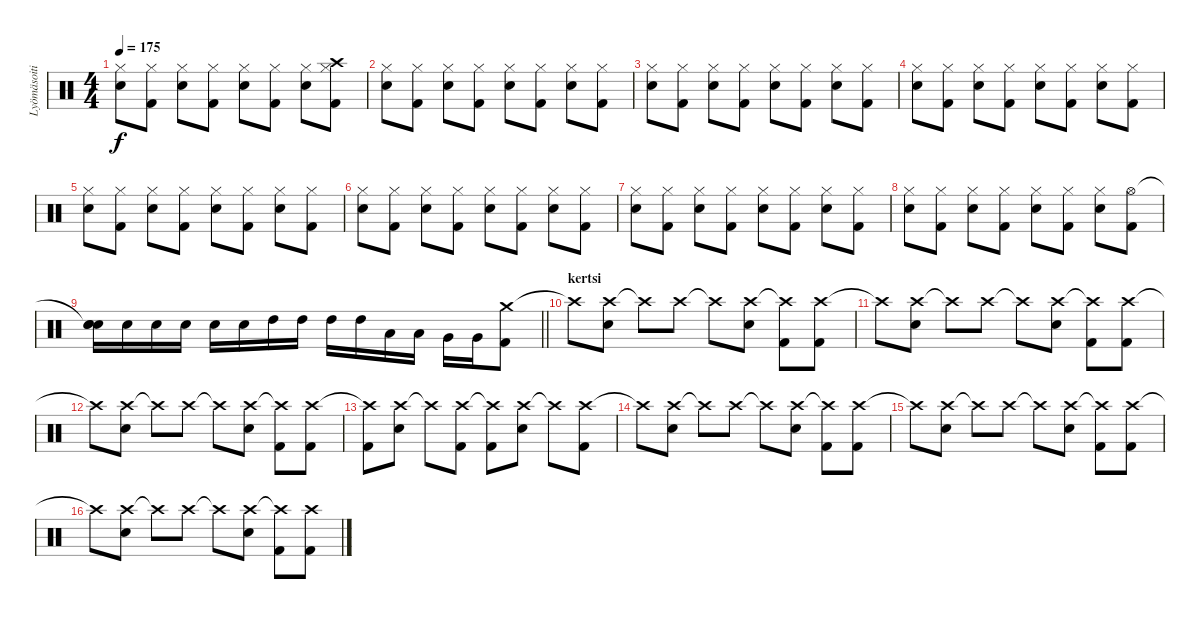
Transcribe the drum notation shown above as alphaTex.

\track ("Lyömäsoitin" "Lyömäsoiti") {instrument percussion}
\staff {score}
\articulation defaults
\ts (4 4)
\tempo 175
\clef neutral
\ks c
("Hi-Hat (closed)" "Electric Snare (hit)").8{dy f} ("Hi-Hat (closed)" "Kick (hit) 2").8 ("Hi-Hat (closed)" "Electric Snare (hit)").8 ("Hi-Hat (closed)" "Kick (hit) 2").8 ("Hi-Hat (closed)" "Electric Snare (hit)").8 ("Hi-Hat (closed)" "Kick (hit) 2").8 ("Hi-Hat (closed)" "Electric Snare (hit)").8 ("Crash high (hit)" "Hi-Hat (closed)" "Kick (hit) 2").8 |
("Hi-Hat (closed)" "Electric Snare (hit)").8 ("Hi-Hat (closed)" "Kick (hit) 2").8 ("Hi-Hat (closed)" "Electric Snare (hit)").8 ("Hi-Hat (closed)" "Kick (hit) 2").8 ("Hi-Hat (closed)" "Electric Snare (hit)").8 ("Hi-Hat (closed)" "Kick (hit) 2").8 ("Hi-Hat (closed)" "Electric Snare (hit)").8 ("Hi-Hat (closed)" "Kick (hit) 2").8 |
("Hi-Hat (closed)" "Electric Snare (hit)").8 ("Hi-Hat (closed)" "Kick (hit) 2").8 ("Hi-Hat (closed)" "Electric Snare (hit)").8 ("Hi-Hat (closed)" "Kick (hit) 2").8 ("Hi-Hat (closed)" "Electric Snare (hit)").8 ("Hi-Hat (closed)" "Kick (hit) 2").8 ("Hi-Hat (closed)" "Electric Snare (hit)").8 ("Hi-Hat (closed)" "Kick (hit) 2").8 |
("Hi-Hat (closed)" "Electric Snare (hit)").8 ("Hi-Hat (closed)" "Kick (hit) 2").8 ("Hi-Hat (closed)" "Electric Snare (hit)").8 ("Hi-Hat (closed)" "Kick (hit) 2").8 ("Hi-Hat (closed)" "Electric Snare (hit)").8 ("Hi-Hat (closed)" "Kick (hit) 2").8 ("Hi-Hat (closed)" "Electric Snare (hit)").8 ("Hi-Hat (closed)" "Kick (hit) 2").8 |
("Hi-Hat (closed)" "Electric Snare (hit)").8 ("Hi-Hat (closed)" "Kick (hit) 2").8 ("Hi-Hat (closed)" "Electric Snare (hit)").8 ("Hi-Hat (closed)" "Kick (hit) 2").8 ("Hi-Hat (closed)" "Electric Snare (hit)").8 ("Hi-Hat (closed)" "Kick (hit) 2").8 ("Hi-Hat (closed)" "Electric Snare (hit)").8 ("Hi-Hat (closed)" "Kick (hit) 2").8 |
("Hi-Hat (closed)" "Electric Snare (hit)").8 ("Hi-Hat (closed)" "Kick (hit) 2").8 ("Hi-Hat (closed)" "Electric Snare (hit)").8 ("Hi-Hat (closed)" "Kick (hit) 2").8 ("Hi-Hat (closed)" "Electric Snare (hit)").8 ("Hi-Hat (closed)" "Kick (hit) 2").8 ("Hi-Hat (closed)" "Electric Snare (hit)").8 ("Hi-Hat (closed)" "Kick (hit) 2").8 |
("Hi-Hat (closed)" "Electric Snare (hit)").8 ("Hi-Hat (closed)" "Kick (hit) 2").8 ("Hi-Hat (closed)" "Electric Snare (hit)").8 ("Hi-Hat (closed)" "Kick (hit) 2").8 ("Hi-Hat (closed)" "Electric Snare (hit)").8 ("Hi-Hat (closed)" "Kick (hit) 2").8 ("Hi-Hat (closed)" "Electric Snare (hit)").8 ("Hi-Hat (closed)" "Kick (hit) 2").8 |
("Hi-Hat (closed)" "Electric Snare (hit)").8 ("Hi-Hat (closed)" "Kick (hit) 2").8 ("Hi-Hat (closed)" "Electric Snare (hit)").8 ("Hi-Hat (closed)" "Kick (hit) 2").8 ("Hi-Hat (closed)" "Electric Snare (hit)").8 ("Hi-Hat (closed)" "Kick (hit) 2").8 ("Hi-Hat (closed)" "Electric Snare (hit)").8 ("Hi-Hat (open)" "Kick (hit) 2").8 |
\barLineRight lightlight
("Snare (hit)"{t} "Electric Snare (hit)" "Snare (hit)").16 "Electric Snare (hit)".16 "Electric Snare (hit)".16 "Electric Snare (hit)".16 "Electric Snare (hit)".16 "Electric Snare (hit)".16 "High Tom (hit)".16 "High Tom (hit)".16 "High Tom (hit)".16 "High Tom (hit)".16 "Low Tom (hit)".16 "Low Tom (hit)".16 "Very Low Tom (hit)".16 "Very Low Tom (hit)".16 ("Crash medium (hit)" "Kick (hit) 2").8 |
\section ("" "kertsi")
"Crash high (hit)"{t}.8 ("Crash high (hit)" "Electric Snare (hit)").8 "Crash high (hit)"{t}.8 "Crash high (hit)".8 "Crash high (hit)"{t}.8 ("Crash high (hit)" "Electric Snare (hit)").8 ("Crash high (hit)"{t} "Kick (hit) 2").8 ("Crash high (hit)" "Kick (hit) 2").8 |
"Crash high (hit)"{t}.8 ("Crash high (hit)" "Electric Snare (hit)").8 "Crash high (hit)"{t}.8 "Crash high (hit)".8 "Crash high (hit)"{t}.8 ("Crash high (hit)" "Electric Snare (hit)").8 ("Crash high (hit)"{t} "Kick (hit) 2").8 ("Crash high (hit)" "Kick (hit) 2").8 |
"Crash high (hit)"{t}.8 ("Crash high (hit)" "Electric Snare (hit)").8 "Crash high (hit)"{t}.8 "Crash high (hit)".8 "Crash high (hit)"{t}.8 ("Crash high (hit)" "Electric Snare (hit)").8 ("Crash high (hit)"{t} "Kick (hit) 2").8 ("Crash high (hit)" "Kick (hit) 2").8 |
("Crash high (hit)"{t} "Kick (hit) 2").8 ("Crash high (hit)" "Electric Snare (hit)").8 "Crash high (hit)"{t}.8 ("Crash high (hit)" "Kick (hit) 2").8 ("Crash high (hit)"{t} "Kick (hit) 2").8 ("Crash high (hit)" "Electric Snare (hit)").8 "Crash high (hit)"{t}.8 ("Crash high (hit)" "Kick (hit) 2").8 |
"Crash high (hit)"{t}.8 ("Crash high (hit)" "Electric Snare (hit)").8 "Crash high (hit)"{t}.8 "Crash high (hit)".8 "Crash high (hit)"{t}.8 ("Crash high (hit)" "Electric Snare (hit)").8 ("Crash high (hit)"{t} "Kick (hit) 2").8 ("Crash high (hit)" "Kick (hit) 2").8 |
"Crash high (hit)"{t}.8 ("Crash high (hit)" "Electric Snare (hit)").8 "Crash high (hit)"{t}.8 "Crash high (hit)".8 "Crash high (hit)"{t}.8 ("Crash high (hit)" "Electric Snare (hit)").8 ("Crash high (hit)"{t} "Kick (hit) 2").8 ("Crash high (hit)" "Kick (hit) 2").8 |
"Crash high (hit)"{t}.8 ("Crash high (hit)" "Electric Snare (hit)").8 "Crash high (hit)"{t}.8 "Crash high (hit)".8 "Crash high (hit)"{t}.8 ("Crash high (hit)" "Electric Snare (hit)").8 ("Crash high (hit)"{t} "Kick (hit) 2").8 ("Crash high (hit)" "Kick (hit) 2").8
